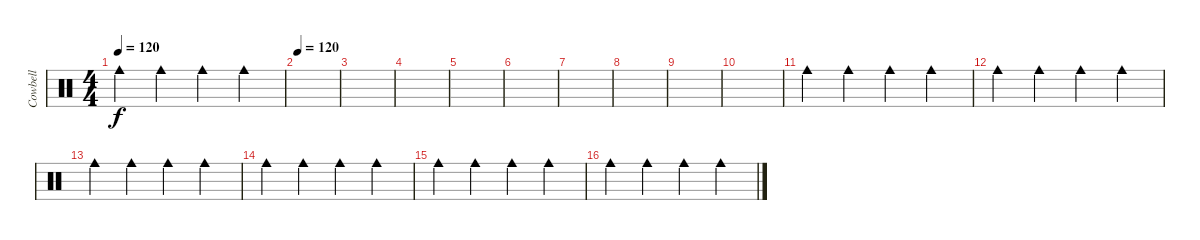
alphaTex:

\track ("Cowbell" "Cowbell") {instrument percussion}
\staff {score}
\articulation defaults
\ts (4 4)
\tempo 120
\clef neutral
\ks c "Cowbell medium (hit)".4{dy f} "Cowbell medium (hit)".4 "Cowbell medium (hit)".4 "Cowbell medium (hit)".4
|
\tempo 120
|
|
|
|
|
|
|
|
|
"Cowbell medium (hit)".4 "Cowbell medium (hit)".4 "Cowbell medium (hit)".4 "Cowbell medium (hit)".4 |
"Cowbell medium (hit)".4 "Cowbell medium (hit)".4 "Cowbell medium (hit)".4 "Cowbell medium (hit)".4 |
"Cowbell medium (hit)".4 "Cowbell medium (hit)".4 "Cowbell medium (hit)".4 "Cowbell medium (hit)".4 |
"Cowbell medium (hit)".4 "Cowbell medium (hit)".4 "Cowbell medium (hit)".4 "Cowbell medium (hit)".4 |
"Cowbell medium (hit)".4 "Cowbell medium (hit)".4 "Cowbell medium (hit)".4 "Cowbell medium (hit)".4 |
"Cowbell medium (hit)".4 "Cowbell medium (hit)".4 "Cowbell medium (hit)".4 "Cowbell medium (hit)".4
